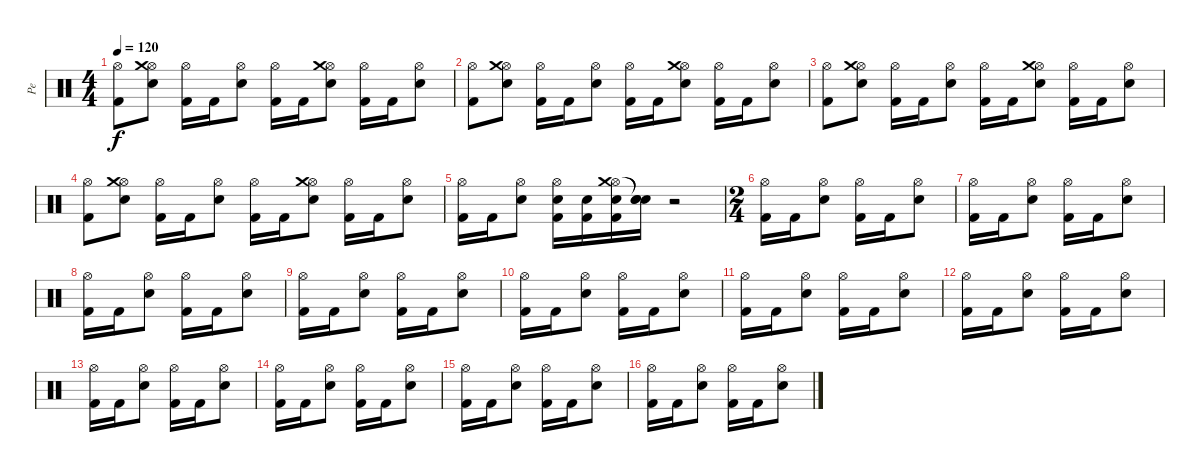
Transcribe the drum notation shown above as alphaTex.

\track ("Pe" "Pe") {instrument percussion}
\staff {score}
\articulation defaults
\ts (4 4)
\tempo 120
\clef neutral
\ks c
("Hi-Hat (open)" "Kick (hit) 2").8{dy f} ("Hi-Hat (open)" "Crash medium (hit)" "Electric Snare (hit)").8 ("Hi-Hat (open)" "Kick (hit) 2").16 "Kick (hit) 2".16 ("Hi-Hat (open)" "Electric Snare (hit)").8 ("Hi-Hat (open)" "Kick (hit) 2").16 "Kick (hit) 2".16 ("Hi-Hat (open)" "Crash medium (hit)" "Electric Snare (hit)").8 ("Hi-Hat (open)" "Kick (hit) 2").16 "Kick (hit) 2".16 ("Hi-Hat (open)" "Electric Snare (hit)").8 |
("Hi-Hat (open)" "Kick (hit) 2").8 ("Hi-Hat (open)" "Crash medium (hit)" "Electric Snare (hit)").8 ("Hi-Hat (open)" "Kick (hit) 2").16 "Kick (hit) 2".16 ("Hi-Hat (open)" "Electric Snare (hit)").8 ("Hi-Hat (open)" "Kick (hit) 2").16 "Kick (hit) 2".16 ("Hi-Hat (open)" "Crash medium (hit)" "Electric Snare (hit)").8 ("Hi-Hat (open)" "Kick (hit) 2").16 "Kick (hit) 2".16 ("Hi-Hat (open)" "Electric Snare (hit)").8 |
("Hi-Hat (open)" "Kick (hit) 2").8 ("Hi-Hat (open)" "Crash medium (hit)" "Electric Snare (hit)").8 ("Hi-Hat (open)" "Kick (hit) 2").16 "Kick (hit) 2".16 ("Hi-Hat (open)" "Electric Snare (hit)").8 ("Hi-Hat (open)" "Kick (hit) 2").16 "Kick (hit) 2".16 ("Hi-Hat (open)" "Crash medium (hit)" "Electric Snare (hit)").8 ("Hi-Hat (open)" "Kick (hit) 2").16 "Kick (hit) 2".16 ("Hi-Hat (open)" "Electric Snare (hit)").8 |
("Hi-Hat (open)" "Kick (hit) 2").8 ("Hi-Hat (open)" "Crash medium (hit)" "Electric Snare (hit)").8 ("Hi-Hat (open)" "Kick (hit) 2").16 "Kick (hit) 2".16 ("Hi-Hat (open)" "Electric Snare (hit)").8 ("Hi-Hat (open)" "Kick (hit) 2").16 "Kick (hit) 2".16 ("Hi-Hat (open)" "Crash medium (hit)" "Electric Snare (hit)").8 ("Hi-Hat (open)" "Kick (hit) 2").16 "Kick (hit) 2".16 ("Hi-Hat (open)" "Electric Snare (hit)").8 |
("Hi-Hat (open)" "Kick (hit) 2").16 "Kick (hit) 2".16 ("Hi-Hat (open)" "Electric Snare (hit)").8 ("Hi-Hat (open)" "Electric Snare (hit)" "Kick (hit) 2").16 ("Electric Snare (hit)" "Kick (hit) 2").16 ("Hi-Hat (open)" "Crash medium (hit)" "Electric Snare (hit)" "Kick (hit) 2").16 ("Snare (hit)"{t} "Snare (hit)"{t} "Electric Snare (hit)").16 r.2 |
\ts (2 4)
("Hi-Hat (open)" "Kick (hit) 2").16 "Kick (hit) 2".16 ("Hi-Hat (open)" "Electric Snare (hit)").8 ("Hi-Hat (open)" "Kick (hit) 2").16 "Kick (hit) 2".16 ("Hi-Hat (open)" "Electric Snare (hit)").8 |
("Hi-Hat (open)" "Kick (hit) 2").16 "Kick (hit) 2".16 ("Hi-Hat (open)" "Electric Snare (hit)").8 ("Hi-Hat (open)" "Kick (hit) 2").16 "Kick (hit) 2".16 ("Hi-Hat (open)" "Electric Snare (hit)").8 |
("Hi-Hat (open)" "Kick (hit) 2").16 "Kick (hit) 2".16 ("Hi-Hat (open)" "Electric Snare (hit)").8 ("Hi-Hat (open)" "Kick (hit) 2").16 "Kick (hit) 2".16 ("Hi-Hat (open)" "Electric Snare (hit)").8 |
("Hi-Hat (open)" "Kick (hit) 2").16 "Kick (hit) 2".16 ("Hi-Hat (open)" "Electric Snare (hit)").8 ("Hi-Hat (open)" "Kick (hit) 2").16 "Kick (hit) 2".16 ("Hi-Hat (open)" "Electric Snare (hit)").8 |
("Hi-Hat (open)" "Kick (hit) 2").16 "Kick (hit) 2".16 ("Hi-Hat (open)" "Electric Snare (hit)").8 ("Hi-Hat (open)" "Kick (hit) 2").16 "Kick (hit) 2".16 ("Hi-Hat (open)" "Electric Snare (hit)").8 |
("Hi-Hat (open)" "Kick (hit) 2").16 "Kick (hit) 2".16 ("Hi-Hat (open)" "Electric Snare (hit)").8 ("Hi-Hat (open)" "Kick (hit) 2").16 "Kick (hit) 2".16 ("Hi-Hat (open)" "Electric Snare (hit)").8 |
("Hi-Hat (open)" "Kick (hit) 2").16 "Kick (hit) 2".16 ("Hi-Hat (open)" "Electric Snare (hit)").8 ("Hi-Hat (open)" "Kick (hit) 2").16 "Kick (hit) 2".16 ("Hi-Hat (open)" "Electric Snare (hit)").8 |
("Hi-Hat (open)" "Kick (hit) 2").16 "Kick (hit) 2".16 ("Hi-Hat (open)" "Electric Snare (hit)").8 ("Hi-Hat (open)" "Kick (hit) 2").16 "Kick (hit) 2".16 ("Hi-Hat (open)" "Electric Snare (hit)").8 |
("Hi-Hat (open)" "Kick (hit) 2").16 "Kick (hit) 2".16 ("Hi-Hat (open)" "Electric Snare (hit)").8 ("Hi-Hat (open)" "Kick (hit) 2").16 "Kick (hit) 2".16 ("Hi-Hat (open)" "Electric Snare (hit)").8 |
("Hi-Hat (open)" "Kick (hit) 2").16 "Kick (hit) 2".16 ("Hi-Hat (open)" "Electric Snare (hit)").8 ("Hi-Hat (open)" "Kick (hit) 2").16 "Kick (hit) 2".16 ("Hi-Hat (open)" "Electric Snare (hit)").8 |
("Hi-Hat (open)" "Kick (hit) 2").16 "Kick (hit) 2".16 ("Hi-Hat (open)" "Electric Snare (hit)").8 ("Hi-Hat (open)" "Kick (hit) 2").16 "Kick (hit) 2".16 ("Hi-Hat (open)" "Electric Snare (hit)").8
